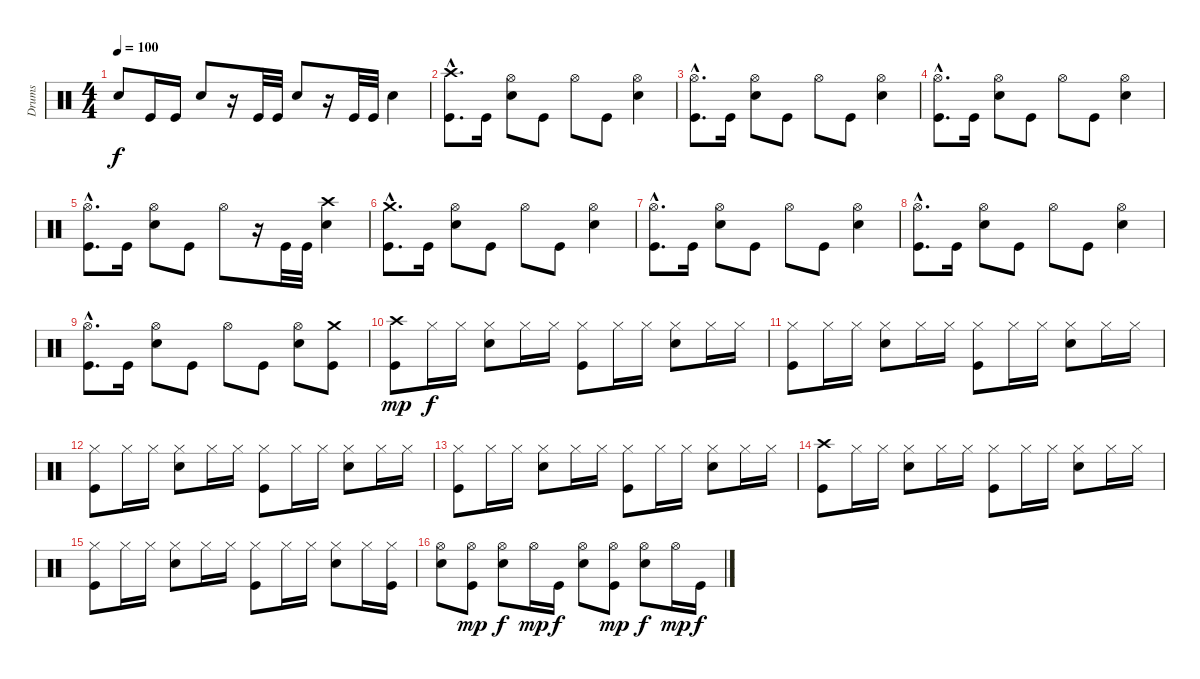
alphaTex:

\track ("Drums" "Drums") {instrument percussion}
\staff {score}
\articulation defaults
\ts (4 4)
\tempo 100
\clef neutral
\ks c "Snare (hit) 2".8{dy f} "Kick (hit)".16 "Kick (hit)".16 "Snare (hit) 2".8
r.16 "Kick (hit)".32 "Kick (hit)".32 "Snare (hit) 2".8 r.16 "Kick (hit)".32 "Kick (hit)".32 "Snare (hit) 2".4 |
("Crash high (hit)"{hac} "Kick (hit)"{hac}).8{d} "Kick (hit)".16 ("Hi-Hat (open)" "Snare (hit) 2").8 "Kick (hit)".8 "Hi-Hat (open)".8 "Kick (hit)".8 ("Hi-Hat (open)" "Snare (hit) 2").4 |
("Hi-Hat (open)"{hac} "Kick (hit)"{hac}).8{d} "Kick (hit)".16 ("Hi-Hat (open)" "Snare (hit) 2").8 "Kick (hit)".8 "Hi-Hat (open)".8 "Kick (hit)".8 ("Hi-Hat (open)" "Snare (hit) 2").4 |
("Hi-Hat (open)"{hac} "Kick (hit)"{hac}).8{d} "Kick (hit)".16 ("Hi-Hat (open)" "Snare (hit) 2").8 "Kick (hit)".8 "Hi-Hat (open)".8 "Kick (hit)".8 ("Hi-Hat (open)" "Snare (hit) 2").4 |
("Hi-Hat (open)"{hac} "Kick (hit)"{hac}).8{d} "Kick (hit)".16 ("Hi-Hat (open)" "Snare (hit) 2").8 "Kick (hit)".8 "Hi-Hat (open)".8 r.16 "Kick (hit)".32 "Kick (hit)".32 ("Crash high (hit)" "Snare (hit) 2").4 |
("Crash medium (hit)"{hac} "Kick (hit)"{hac}).8{d} "Kick (hit)".16 ("Hi-Hat (open)" "Snare (hit) 2").8 "Kick (hit)".8 "Hi-Hat (open)".8 "Kick (hit)".8 ("Hi-Hat (open)" "Snare (hit) 2").4 |
("Hi-Hat (open)"{hac} "Kick (hit)"{hac}).8{d} "Kick (hit)".16 ("Hi-Hat (open)" "Snare (hit) 2").8 "Kick (hit)".8 "Hi-Hat (open)".8 "Kick (hit)".8 ("Hi-Hat (open)" "Snare (hit) 2").4 |
("Hi-Hat (open)"{hac} "Kick (hit)"{hac}).8{d} "Kick (hit)".16 ("Hi-Hat (open)" "Snare (hit) 2").8 "Kick (hit)".8 "Hi-Hat (open)".8 "Kick (hit)".8 ("Hi-Hat (open)" "Snare (hit) 2").4 |
("Hi-Hat (open)"{hac} "Kick (hit)"{hac}).8{d} "Kick (hit)".16 ("Hi-Hat (open)" "Snare (hit) 2").8 "Kick (hit)".8 "Hi-Hat (open)".8 "Kick (hit)".8 ("Hi-Hat (open)" "Snare (hit) 2").8 ("Crash medium (hit)" "Kick (hit)").8 |
("Crash high (hit)" "Kick (hit)").8{dy mp} "Hi-Hat (closed)".16{dy f} "Hi-Hat (closed)".16 ("Hi-Hat (closed)" "Snare (hit) 2").8 "Hi-Hat (closed)".16 "Hi-Hat (closed)".16 ("Hi-Hat (closed)" "Kick (hit)").8 "Hi-Hat (closed)".16 "Hi-Hat (closed)".16 ("Hi-Hat (closed)" "Snare (hit) 2").8 "Hi-Hat (closed)".16 "Hi-Hat (closed)".16 |
("Hi-Hat (closed)" "Kick (hit)").8 "Hi-Hat (closed)".16 "Hi-Hat (closed)".16 ("Hi-Hat (closed)" "Snare (hit) 2").8 "Hi-Hat (closed)".16 "Hi-Hat (closed)".16 ("Hi-Hat (closed)" "Kick (hit)").8 "Hi-Hat (closed)".16 "Hi-Hat (closed)".16 ("Hi-Hat (closed)" "Snare (hit) 2").8 "Hi-Hat (closed)".16 "Hi-Hat (closed)".16 |
("Hi-Hat (closed)" "Kick (hit)").8 "Hi-Hat (closed)".16 "Hi-Hat (closed)".16 ("Hi-Hat (closed)" "Snare (hit) 2").8 "Hi-Hat (closed)".16 "Hi-Hat (closed)".16 ("Hi-Hat (closed)" "Kick (hit)").8 "Hi-Hat (closed)".16 "Hi-Hat (closed)".16 ("Hi-Hat (closed)" "Snare (hit) 2").8 "Hi-Hat (closed)".16 "Hi-Hat (closed)".16 |
("Hi-Hat (closed)" "Kick (hit)").8 "Hi-Hat (closed)".16 "Hi-Hat (closed)".16 ("Hi-Hat (closed)" "Snare (hit) 2").8 "Hi-Hat (closed)".16 "Hi-Hat (closed)".16 ("Hi-Hat (closed)" "Kick (hit)").8 "Hi-Hat (closed)".16 "Hi-Hat (closed)".16 ("Hi-Hat (closed)" "Snare (hit) 2").8 "Hi-Hat (closed)".16 "Hi-Hat (closed)".16 |
("Crash high (hit)" "Kick (hit)").8 "Hi-Hat (closed)".16 "Hi-Hat (closed)".16 ("Hi-Hat (closed)" "Snare (hit) 2").8 "Hi-Hat (closed)".16 "Hi-Hat (closed)".16 ("Hi-Hat (closed)" "Kick (hit)").8 "Hi-Hat (closed)".16 "Hi-Hat (closed)".16 ("Hi-Hat (closed)" "Snare (hit) 2").8 "Hi-Hat (closed)".16 "Hi-Hat (closed)".16 |
("Hi-Hat (closed)" "Kick (hit)").8 "Hi-Hat (closed)".16 "Hi-Hat (closed)".16 ("Hi-Hat (closed)" "Snare (hit) 2").8 "Hi-Hat (closed)".16 "Hi-Hat (closed)".16 ("Hi-Hat (closed)" "Kick (hit)").8 "Hi-Hat (closed)".16 "Hi-Hat (closed)".16 ("Hi-Hat (closed)" "Snare (hit) 2").8 "Hi-Hat (closed)".16 ("Hi-Hat (closed)" "Kick (hit)").16 |
("Hi-Hat (open)" "Snare (hit) 2").8 ("Hi-Hat (open)" "Kick (hit)").8{dy mp} ("Hi-Hat (open)" "Snare (hit) 2").8{dy f} "Hi-Hat (open)".16{dy mp} "Kick (hit)".16{dy f} ("Hi-Hat (open)" "Snare (hit) 2").8 ("Hi-Hat (open)" "Kick (hit)").8{dy mp} ("Hi-Hat (open)" "Snare (hit) 2").8{dy f} "Hi-Hat (open)".16{dy mp} "Kick (hit)".16{dy f}
